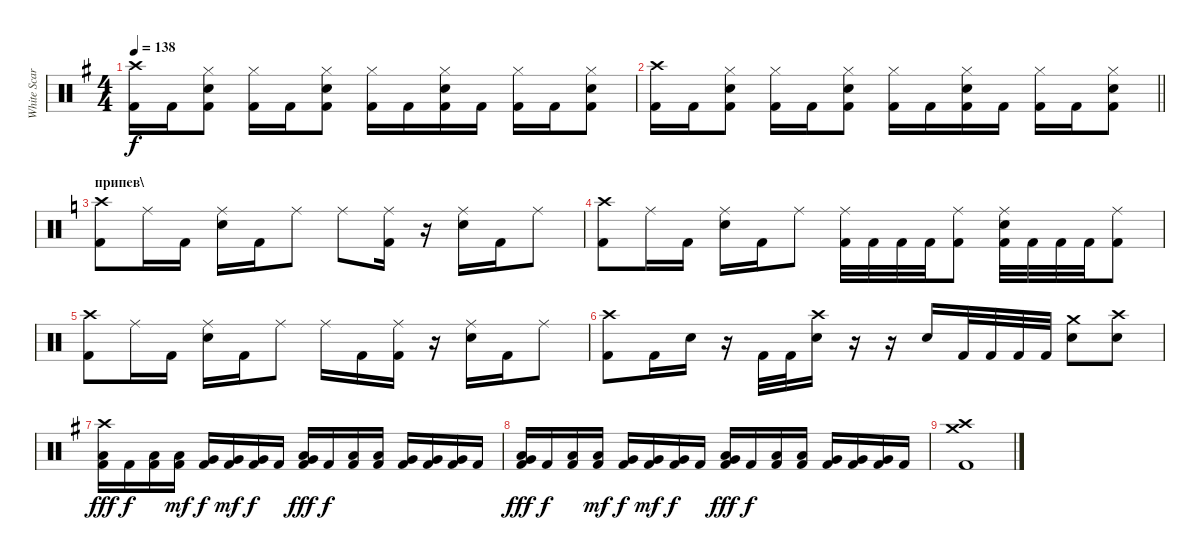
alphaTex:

\track ("White Scar" "White Scar") {instrument percussion}
\staff {score}
\articulation defaults
\ts (4 4)
\tempo 138
\clef neutral
\ks eminor
("Crash high (hit)" "Kick (hit) 2").16{dy f} "Kick (hit) 2".16 ("Snare (hit) 2" "Hi-Hat (closed)" "Kick (hit) 2").8 ("Hi-Hat (closed)" "Kick (hit) 2").16 "Kick (hit) 2".16 ("Snare (hit) 2" "Hi-Hat (closed)" "Kick (hit) 2").8 ("Hi-Hat (closed)" "Kick (hit) 2").16 "Kick (hit) 2".16 ("Snare (hit) 2" "Hi-Hat (closed)" "Kick (hit) 2").16 "Kick (hit) 2".16 ("Hi-Hat (closed)" "Kick (hit) 2").16 "Kick (hit) 2".16 ("Snare (hit) 2" "Hi-Hat (closed)" "Kick (hit) 2").8 |
\barLineRight lightlight
("Crash high (hit)" "Kick (hit) 2").16 "Kick (hit) 2".16 ("Snare (hit) 2" "Hi-Hat (closed)" "Kick (hit) 2").8 ("Hi-Hat (closed)" "Kick (hit) 2").16 "Kick (hit) 2".16 ("Snare (hit) 2" "Hi-Hat (closed)" "Kick (hit) 2").8 ("Hi-Hat (closed)" "Kick (hit) 2").16 "Kick (hit) 2".16 ("Snare (hit) 2" "Hi-Hat (closed)" "Kick (hit) 2").16 "Kick (hit) 2".16 ("Hi-Hat (closed)" "Kick (hit) 2").16 "Kick (hit) 2".16 ("Snare (hit) 2" "Hi-Hat (closed)" "Kick (hit) 2").8 |
\section ("" "припев\\")
\ks c
("Crash high (hit)" "Kick (hit) 2").8 "Ride (middle)".16 "Kick (hit) 2".16 ("Ride (middle)" "Snare (hit) 2").16 "Kick (hit) 2".16 "Ride (middle)".8 "Ride (middle)".8 ("Ride (middle)" "Kick (hit) 2").16 r.16 ("Ride (middle)" "Snare (hit) 2").16 "Kick (hit) 2".16 "Ride (middle)".8 |
("Crash high (hit)" "Kick (hit) 2").8 "Ride (middle)".16 "Kick (hit) 2".16 ("Ride (middle)" "Snare (hit) 2").16 "Kick (hit) 2".16 "Ride (middle)".8 ("Ride (middle)" "Kick (hit) 2").32 "Kick (hit) 2".32 "Kick (hit) 2".32 "Kick (hit) 2".32 ("Ride (middle)" "Kick (hit) 2").8 ("Ride (middle)" "Snare (hit) 2" "Kick (hit) 2").32 "Kick (hit) 2".32 "Kick (hit) 2".32 "Kick (hit) 2".32 ("Ride (middle)" "Kick (hit) 2").8 |
("Crash high (hit)" "Kick (hit) 2").8 "Ride (middle)".16 "Kick (hit) 2".16 ("Ride (middle)" "Snare (hit) 2").16 "Kick (hit) 2".16 "Ride (middle)".8 "Ride (middle)".16 "Kick (hit) 2".16 ("Ride (middle)" "Kick (hit) 2").16 r.16 ("Ride (middle)" "Snare (hit) 2").16 "Kick (hit) 2".16 "Ride (middle)".8 |
("Crash high (hit)" "Kick (hit) 2").8 "Kick (hit) 2".16 "Snare (hit) 2".16 r.16 "Kick (hit) 2".32 "Kick (hit) 2".32 ("Crash high (hit)" "Snare (hit) 2").16 r.16 r.16 "Snare (hit) 2".16 "Kick (hit) 2".32 "Kick (hit) 2".32 "Kick (hit) 2".32 "Kick (hit) 2".32 ("Crash medium (hit)" "Snare (hit) 2").8 ("Crash high (hit)" "Snare (hit) 2").8 |
\ks eminor
("Crash high (hit)" "Low Tom (hit)" "Kick (hit) 2").16{dy fff} "Kick (hit) 2".16{dy f} ("Low Tom (hit)" "Kick (hit) 2").16 ("Low Tom (hit)" "Kick (hit) 2").16{dy mf} ("Very Low Tom (hit)" "Kick (hit) 2").16{dy f} ("Very Low Tom (hit)" "Kick (hit) 2").16{dy mf} ("Very Low Tom (hit)" "Kick (hit) 2").16{dy f} "Kick (hit) 2".16 ("Low Tom (hit)" "Very Low Tom (hit)" "Kick (hit) 2").16{dy fff} "Kick (hit) 2".16{dy f} ("Low Tom (hit)" "Kick (hit) 2").16 ("Low Tom (hit)" "Kick (hit) 2").16 ("Very Low Tom (hit)" "Kick (hit) 2").16 ("Very Low Tom (hit)" "Kick (hit) 2").16 ("Very Low Tom (hit)" "Kick (hit) 2").16 "Kick (hit) 2".16 |
("Low Tom (hit)" "Very Low Tom (hit)" "Kick (hit) 2").16{dy fff} "Kick (hit) 2".16{dy f} ("Low Tom (hit)" "Kick (hit) 2").16 ("Low Tom (hit)" "Kick (hit) 2").16{dy mf} ("Very Low Tom (hit)" "Kick (hit) 2").16{dy f} ("Very Low Tom (hit)" "Kick (hit) 2").16{dy mf} ("Very Low Tom (hit)" "Kick (hit) 2").16{dy f} "Kick (hit) 2".16 ("Low Tom (hit)" "Very Low Tom (hit)" "Kick (hit) 2").16{dy fff} "Kick (hit) 2".16{dy f} ("Low Tom (hit)" "Kick (hit) 2").16 ("Low Tom (hit)" "Kick (hit) 2").16 ("Very Low Tom (hit)" "Kick (hit) 2").16 ("Very Low Tom (hit)" "Kick (hit) 2").16 ("Very Low Tom (hit)" "Kick (hit) 2").16 "Kick (hit) 2".16 |
("Crash medium (hit)" "Crash high (hit)" "Kick (hit) 2").1
